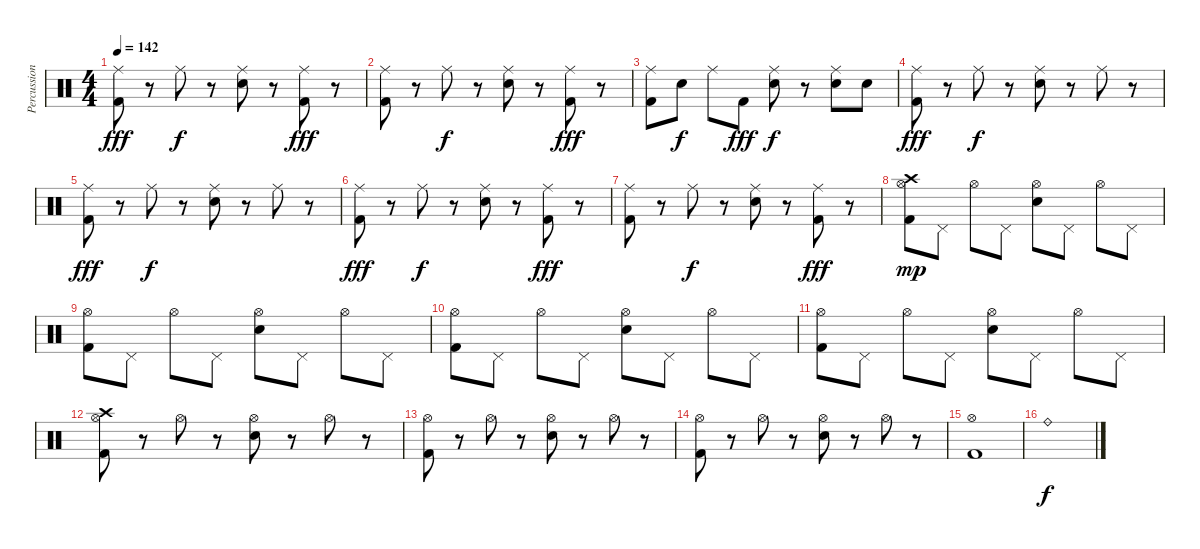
\track ("Percussion" "Percussion") {instrument percussion}
\staff {score}
\articulation defaults
\ts (4 4)
\tempo 142
\clef neutral
\ks c
("Kick (hit) 2" "Ride (middle)").8{dy fff} r.8 "Ride (middle)".8{dy f} r.8 ("Electric Snare (hit)" "Ride (middle)").8 r.8 ("Kick (hit) 2" "Ride (middle)").8{dy fff} r.8 |
("Kick (hit) 2" "Ride (middle)").8 r.8 "Ride (middle)".8{dy f} r.8 ("Electric Snare (hit)" "Ride (middle)").8 r.8 ("Kick (hit) 2" "Ride (middle)").8{dy fff} r.8 |
("Kick (hit) 2" "Ride (middle)").8 "Electric Snare (hit)".8{dy f} "Ride (middle)".8 "Kick (hit) 2".8{dy fff} ("Electric Snare (hit)" "Ride (middle)").8{dy f} r.8 ("Electric Snare (hit)" "Ride (middle)").8 "Electric Snare (hit)".8 |
("Kick (hit) 2" "Ride (middle)").8{dy fff} r.8 "Ride (middle)".8{dy f} r.8 ("Electric Snare (hit)" "Ride (middle)").8 r.8 "Ride (middle)".8 r.8 |
("Kick (hit) 2" "Ride (middle)").8{dy fff} r.8 "Ride (middle)".8{dy f} r.8 ("Electric Snare (hit)" "Ride (middle)").8 r.8 "Ride (middle)".8 r.8 |
("Kick (hit) 2" "Ride (middle)").8{dy fff} r.8 "Ride (middle)".8{dy f} r.8 ("Electric Snare (hit)" "Ride (middle)").8 r.8 ("Kick (hit) 2" "Ride (middle)").8{dy fff} r.8 |
("Kick (hit) 2" "Ride (middle)").8 r.8 "Ride (middle)".8{dy f} r.8 ("Electric Snare (hit)" "Ride (middle)").8 r.8 ("Kick (hit) 2" "Ride (middle)").8{dy fff} r.8 |
("Kick (hit) 2" "Hi-Hat (open)" "Crash high (hit)").8{dy mp} "Pedal Hi-Hat (hit)".8 "Hi-Hat (open)".8 "Pedal Hi-Hat (hit)".8 ("Electric Snare (hit)" "Hi-Hat (open)").8 "Pedal Hi-Hat (hit)".8 "Hi-Hat (open)".8 "Pedal Hi-Hat (hit)".8 |
("Kick (hit) 2" "Hi-Hat (open)").8 "Pedal Hi-Hat (hit)".8 "Hi-Hat (open)".8 "Pedal Hi-Hat (hit)".8 ("Electric Snare (hit)" "Hi-Hat (open)").8 "Pedal Hi-Hat (hit)".8 "Hi-Hat (open)".8 "Pedal Hi-Hat (hit)".8 |
("Kick (hit) 2" "Hi-Hat (open)").8 "Pedal Hi-Hat (hit)".8 "Hi-Hat (open)".8 "Pedal Hi-Hat (hit)".8 ("Electric Snare (hit)" "Hi-Hat (open)").8 "Pedal Hi-Hat (hit)".8 "Hi-Hat (open)".8 "Pedal Hi-Hat (hit)".8 |
("Kick (hit) 2" "Hi-Hat (open)").8 "Pedal Hi-Hat (hit)".8 "Hi-Hat (open)".8 "Pedal Hi-Hat (hit)".8 ("Electric Snare (hit)" "Hi-Hat (open)").8 "Pedal Hi-Hat (hit)".8 "Hi-Hat (open)".8 "Pedal Hi-Hat (hit)".8 |
("Kick (hit) 2" "Hi-Hat (open)" "Crash high (hit)").8 r.8 "Hi-Hat (open)".8 r.8 ("Electric Snare (hit)" "Hi-Hat (open)").8 r.8 "Hi-Hat (open)".8 r.8 |
("Kick (hit) 2" "Hi-Hat (open)").8 r.8 "Hi-Hat (open)".8 r.8 ("Electric Snare (hit)" "Hi-Hat (open)").8 r.8 "Hi-Hat (open)".8 r.8 |
("Kick (hit) 2" "Hi-Hat (open)").8 r.8 "Hi-Hat (open)".8 r.8 ("Electric Snare (hit)" "Hi-Hat (open)").8 r.8 "Hi-Hat (open)".8 r.8 |
("Kick (hit) 2" "Hi-Hat (open)").1 |
"Ride (bell)".1{dy f}
